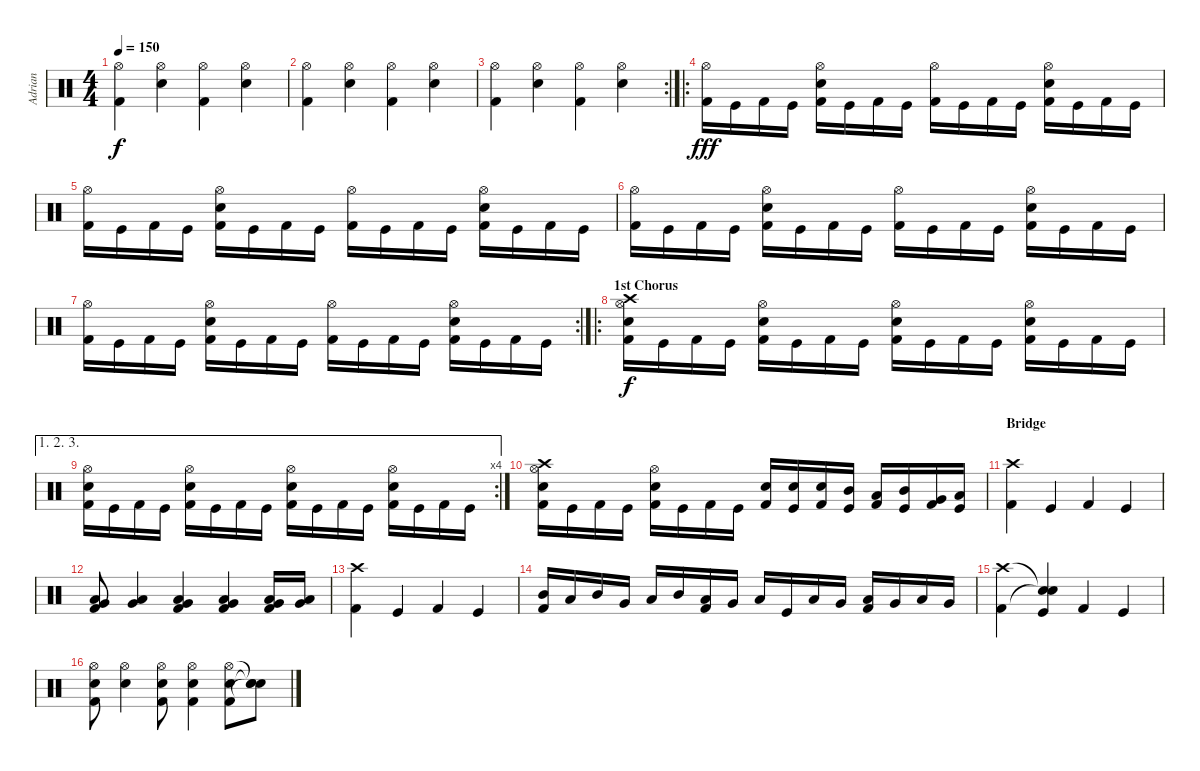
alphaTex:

\track ("Adrian" "Adrian") {instrument percussion}
\staff {score}
\articulation defaults
\ts (4 4)
\tempo 150
\clef neutral
\ks c
("Hi-Hat (open)" "Kick (hit) 2").4{dy f} ("Hi-Hat (open)" "Electric Snare (hit)").4 ("Hi-Hat (open)" "Kick (hit) 2").4 ("Hi-Hat (open)" "Electric Snare (hit)").4 |
("Hi-Hat (open)" "Kick (hit) 2").4 ("Hi-Hat (open)" "Electric Snare (hit)").4 ("Hi-Hat (open)" "Kick (hit) 2").4 ("Hi-Hat (open)" "Electric Snare (hit)").4 |
\rc 2
("Hi-Hat (open)" "Kick (hit) 2").4 ("Hi-Hat (open)" "Electric Snare (hit)").4 ("Hi-Hat (open)" "Kick (hit) 2").4 ("Hi-Hat (open)" "Electric Snare (hit)").4 |
\ro
("Hi-Hat (open)" "Kick (hit) 2").16{dy fff} "Kick (hit)".16 "Kick (hit) 2".16 "Kick (hit)".16 ("Hi-Hat (open)" "Electric Snare (hit)" "Kick (hit) 2").16 "Kick (hit)".16 "Kick (hit) 2".16 "Kick (hit)".16 ("Hi-Hat (open)" "Kick (hit) 2").16 "Kick (hit)".16 "Kick (hit) 2".16 "Kick (hit)".16 ("Hi-Hat (open)" "Electric Snare (hit)" "Kick (hit) 2").16 "Kick (hit)".16 "Kick (hit) 2".16 "Kick (hit)".16 |
("Hi-Hat (open)" "Kick (hit) 2").16 "Kick (hit)".16 "Kick (hit) 2".16 "Kick (hit)".16 ("Hi-Hat (open)" "Electric Snare (hit)" "Kick (hit) 2").16 "Kick (hit)".16 "Kick (hit) 2".16 "Kick (hit)".16 ("Hi-Hat (open)" "Kick (hit) 2").16 "Kick (hit)".16 "Kick (hit) 2".16 "Kick (hit)".16 ("Hi-Hat (open)" "Electric Snare (hit)" "Kick (hit) 2").16 "Kick (hit)".16 "Kick (hit) 2".16 "Kick (hit)".16 |
("Hi-Hat (open)" "Kick (hit) 2").16 "Kick (hit)".16 "Kick (hit) 2".16 "Kick (hit)".16 ("Hi-Hat (open)" "Electric Snare (hit)" "Kick (hit) 2").16 "Kick (hit)".16 "Kick (hit) 2".16 "Kick (hit)".16 ("Hi-Hat (open)" "Kick (hit) 2").16 "Kick (hit)".16 "Kick (hit) 2".16 "Kick (hit)".16 ("Hi-Hat (open)" "Electric Snare (hit)" "Kick (hit) 2").16 "Kick (hit)".16 "Kick (hit) 2".16 "Kick (hit)".16 |
\rc 2
("Hi-Hat (open)" "Kick (hit) 2").16 "Kick (hit)".16 "Kick (hit) 2".16 "Kick (hit)".16 ("Hi-Hat (open)" "Electric Snare (hit)" "Kick (hit) 2").16 "Kick (hit)".16 "Kick (hit) 2".16 "Kick (hit)".16 ("Hi-Hat (open)" "Kick (hit) 2").16 "Kick (hit)".16 "Kick (hit) 2".16 "Kick (hit)".16 ("Hi-Hat (open)" "Electric Snare (hit)" "Kick (hit) 2").16 "Kick (hit)".16 "Kick (hit) 2".16 "Kick (hit)".16 |
\ro
\section ("" "1st Chorus")
("Hi-Hat (open)" "Crash high (hit)" "Electric Snare (hit)" "Kick (hit) 2").16{dy f} "Kick (hit)".16 "Kick (hit) 2".16 "Kick (hit)".16 ("Hi-Hat (open)" "Electric Snare (hit)" "Kick (hit) 2").16 "Kick (hit)".16 "Kick (hit) 2".16 "Kick (hit)".16 ("Hi-Hat (open)" "Electric Snare (hit)" "Kick (hit) 2").16 "Kick (hit)".16 "Kick (hit) 2".16 "Kick (hit)".16 ("Hi-Hat (open)" "Electric Snare (hit)" "Kick (hit) 2").16 "Kick (hit)".16 "Kick (hit) 2".16 "Kick (hit)".16 |
\ae (1 2 3)
\rc 4
("Hi-Hat (open)" "Electric Snare (hit)" "Kick (hit) 2").16 "Kick (hit)".16 "Kick (hit) 2".16 "Kick (hit)".16 ("Hi-Hat (open)" "Electric Snare (hit)" "Kick (hit) 2").16 "Kick (hit)".16 "Kick (hit) 2".16 "Kick (hit)".16 ("Hi-Hat (open)" "Electric Snare (hit)" "Kick (hit) 2").16 "Kick (hit)".16 "Kick (hit) 2".16 "Kick (hit)".16 ("Hi-Hat (open)" "Electric Snare (hit)" "Kick (hit) 2").16 "Kick (hit)".16 "Kick (hit) 2".16 "Kick (hit)".16 |
("Hi-Hat (open)" "Crash high (hit)" "Electric Snare (hit)" "Kick (hit) 2").16 "Kick (hit)".16 "Kick (hit) 2".16 "Kick (hit)".16 ("Hi-Hat (open)" "Electric Snare (hit)" "Kick (hit) 2").16 "Kick (hit)".16 "Kick (hit) 2".16 "Kick (hit)".16 ("Electric Snare (hit)" "Kick (hit) 2").16 ("Electric Snare (hit)" "Kick (hit)").16 ("Electric Snare (hit)" "Kick (hit) 2").16 ("Mid Tom (hit)" "Kick (hit)").16 ("Low Tom (hit)" "Kick (hit) 2").16 ("Mid Tom (hit)" "Kick (hit)").16 ("Very Low Tom (hit)" "Kick (hit) 2").16 ("Low Tom (hit)" "Kick (hit)").16 |
\section ("" "Bridge")
("Crash high (hit)" "Kick (hit) 2").4 "Kick (hit)".4 "Kick (hit) 2".4 "Kick (hit)".4 |
("Low Tom (hit)" "Very Low Tom (hit)" "Kick (hit) 2").8 ("Low Tom (hit)" "Very Low Tom (hit)").4 ("Low Tom (hit)" "Very Low Tom (hit)" "Kick (hit) 2").4 ("Low Tom (hit)" "Very Low Tom (hit)" "Kick (hit) 2").4 ("Low Tom (hit)" "Very Low Tom (hit)" "Kick (hit) 2").16 ("Very Low Tom (hit)" "Low Tom (hit)").16 |
("Crash high (hit)" "Kick (hit) 2").4 "Kick (hit)".4 "Kick (hit) 2".4 "Kick (hit)".4 |
("Mid Tom (hit)" "Kick (hit) 2").16 "Low Tom (hit)".16 "Mid Tom (hit)".16 "Very Low Tom (hit)".16 "Low Tom (hit)".16 "Mid Tom (hit)".16 ("Low Tom (hit)" "Kick (hit) 2").16 "Very Low Tom (hit)".16 "Low Tom (hit)".16 "Kick (hit)".16 "Low Tom (hit)".16 "Very Low Tom (hit)".16 ("Low Tom (hit)" "Kick (hit) 2").16 "Very Low Tom (hit)".16 "Low Floor Tom (hit)".16 "Very Low Tom (hit)".16 |
("Crash high (hit)" "Kick (hit) 2").4 ("Snare (hit)"{t} "Snare (hit)"{t} "Kick (hit)").4 "Kick (hit) 2".4 "Kick (hit)".4 |
("Hi-Hat (open)" "Electric Snare (hit)" "Kick (hit) 2").8 ("Hi-Hat (open)" "Electric Snare (hit)").4 ("Hi-Hat (open)" "Electric Snare (hit)" "Kick (hit) 2").8 ("Hi-Hat (open)" "Electric Snare (hit)" "Kick (hit) 2").4 ("Hi-Hat (open)" "Electric Snare (hit)" "Kick (hit) 2").8 ("Snare (hit)"{t} "Snare (hit)"{t} "Snare (hit)"{t}).8
